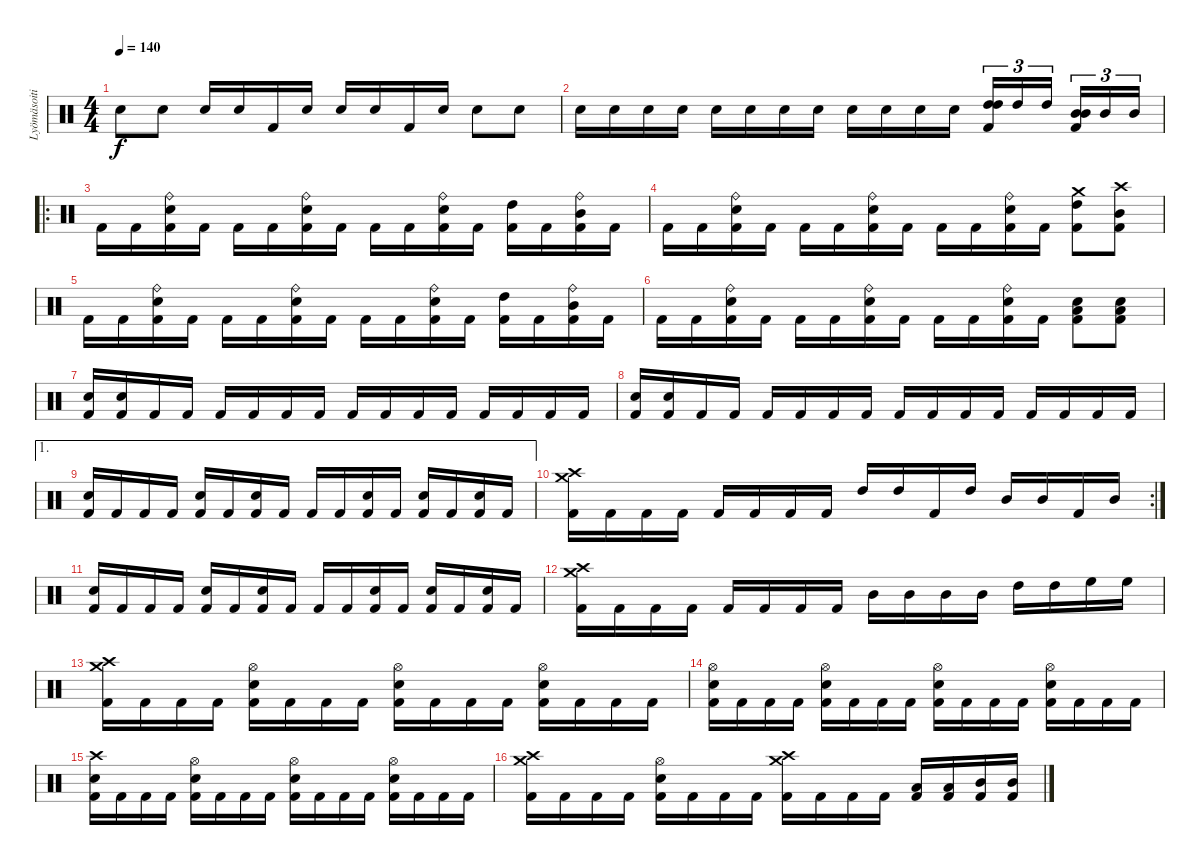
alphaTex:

\track ("Lyömäsoitin" "Lyömäsoiti") {instrument percussion}
\staff {score}
\articulation defaults
\ts (4 4)
\tempo 140
\clef neutral
\ks c "Snare (hit) 2".8{dy f} "Snare (hit) 2".8 "Snare (hit) 2".16 "Snare (hit) 2".16 "Kick (hit) 2".16 "Snare (hit) 2".16 "Snare (hit) 2".16 "Snare (hit) 2".16 "Kick (hit) 2".16 "Snare (hit) 2".16 "Snare (hit) 2".8 "Snare (hit) 2".8
|
"Snare (hit) 2".16 "Snare (hit) 2".16 "Snare (hit) 2".16 "Snare (hit) 2".16 "Snare (hit) 2".16 "Snare (hit) 2".16 "Snare (hit) 2".16 "Snare (hit) 2".16 "Snare (hit) 2".16 "Snare (hit) 2".16 "Snare (hit) 2".16 "Snare (hit) 2".16 ("Kick (hit) 2" "High Tom (hit)" "High Tom (hit)").16{tu (3 2)} "High Tom (hit)".16{tu (3 2)} "High Tom (hit)".16{tu (3 2)} ("Kick (hit) 2" "Mid Tom (hit)" "Mid Tom (hit)").16{tu (3 2)} "Mid Tom (hit)".16{tu (3 2)} "Mid Tom (hit)".16{tu (3 2)} |
\ro "Kick (hit) 2".16 "Kick (hit) 2".16
("Kick (hit) 2" "Snare (hit) 2" "Ride (bell)").16 "Kick (hit) 2".16 "Kick (hit) 2".16 "Kick (hit) 2".16 ("Kick (hit) 2" "Snare (hit) 2" "Ride (bell)").16 "Kick (hit) 2".16 "Kick (hit) 2".16 "Kick (hit) 2".16 ("Kick (hit) 2" "Snare (hit) 2" "Ride (bell)").16 "Kick (hit) 2".16 ("Kick (hit) 2" "High Tom (hit)").16 "Kick (hit) 2".16 ("Kick (hit) 2" "Mid Tom (hit)" "Ride (bell)").16 "Kick (hit) 2".16 |
"Kick (hit) 2".16 "Kick (hit) 2".16 ("Kick (hit) 2" "Snare (hit) 2" "Ride (bell)").16 "Kick (hit) 2".16 "Kick (hit) 2".16 "Kick (hit) 2".16 ("Kick (hit) 2" "Snare (hit) 2" "Ride (bell)").16 "Kick (hit) 2".16 "Kick (hit) 2".16 "Kick (hit) 2".16 ("Kick (hit) 2" "Snare (hit) 2" "Ride (bell)").16 "Kick (hit) 2".16 ("Kick (hit) 2" "High Tom (hit)" "Crash medium (hit)").8 ("Kick (hit) 2" "Mid Tom (hit)" "Crash high (hit)").8 |
"Kick (hit) 2".16 "Kick (hit) 2".16 ("Kick (hit) 2" "Snare (hit) 2" "Ride (bell)").16 "Kick (hit) 2".16 "Kick (hit) 2".16 "Kick (hit) 2".16 ("Kick (hit) 2" "Snare (hit) 2" "Ride (bell)").16 "Kick (hit) 2".16 "Kick (hit) 2".16 "Kick (hit) 2".16 ("Kick (hit) 2" "Snare (hit) 2" "Ride (bell)").16 "Kick (hit) 2".16 ("Kick (hit) 2" "High Tom (hit)").16 "Kick (hit) 2".16 ("Kick (hit) 2" "Mid Tom (hit)" "Ride (bell)").16 "Kick (hit) 2".16 |
"Kick (hit) 2".16 "Kick (hit) 2".16 ("Kick (hit) 2" "Snare (hit) 2" "Ride (bell)").16 "Kick (hit) 2".16 "Kick (hit) 2".16 "Kick (hit) 2".16 ("Kick (hit) 2" "Snare (hit) 2" "Ride (bell)").16 "Kick (hit) 2".16 "Kick (hit) 2".16 "Kick (hit) 2".16 ("Kick (hit) 2" "Snare (hit) 2" "Ride (bell)").16 "Kick (hit) 2".16 ("Kick (hit) 2" "Snare (hit) 2" "Low Tom (hit)").8 ("Kick (hit) 2" "Snare (hit) 2" "Low Tom (hit)").8 |
("Kick (hit) 2" "Snare (hit) 2").16 ("Kick (hit) 2" "Snare (hit) 2").16 "Kick (hit) 2".16 "Kick (hit) 2".16 "Kick (hit) 2".16 "Kick (hit) 2".16 "Kick (hit) 2".16 "Kick (hit) 2".16 "Kick (hit) 2".16 "Kick (hit) 2".16 "Kick (hit) 2".16 "Kick (hit) 2".16 "Kick (hit) 2".16 "Kick (hit) 2".16 "Kick (hit) 2".16 "Kick (hit) 2".16 |
("Kick (hit) 2" "Snare (hit) 2").16 ("Kick (hit) 2" "Snare (hit) 2").16 "Kick (hit) 2".16 "Kick (hit) 2".16 "Kick (hit) 2".16 "Kick (hit) 2".16 "Kick (hit) 2".16 "Kick (hit) 2".16 "Kick (hit) 2".16 "Kick (hit) 2".16 "Kick (hit) 2".16 "Kick (hit) 2".16 "Kick (hit) 2".16 "Kick (hit) 2".16 "Kick (hit) 2".16 "Kick (hit) 2".16 |
\ae 1
("Kick (hit) 2" "Snare (hit) 2").16 "Kick (hit) 2".16 "Kick (hit) 2".16 "Kick (hit) 2".16 ("Kick (hit) 2" "Snare (hit) 2").16 "Kick (hit) 2".16 ("Kick (hit) 2" "Snare (hit) 2").16 "Kick (hit) 2".16 "Kick (hit) 2".16 "Kick (hit) 2".16 ("Kick (hit) 2" "Snare (hit) 2").16 "Kick (hit) 2".16 ("Kick (hit) 2" "Snare (hit) 2").16 "Kick (hit) 2".16 ("Kick (hit) 2" "Snare (hit) 2").16 "Kick (hit) 2".16 |
\rc 2
("Crash medium (hit)" "Crash high (hit)" "Kick (hit) 2").16 "Kick (hit) 2".16 "Kick (hit) 2".16 "Kick (hit) 2".16 "Kick (hit) 2".16 "Kick (hit) 2".16 "Kick (hit) 2".16 "Kick (hit) 2".16 "High Tom (hit)".16 "High Tom (hit)".16 "Kick (hit) 2".16 "High Tom (hit)".16 "Mid Tom (hit)".16 "Mid Tom (hit)".16 "Kick (hit) 2".16 "Mid Tom (hit)".16 |
("Kick (hit) 2" "Snare (hit) 2").16 "Kick (hit) 2".16 "Kick (hit) 2".16 "Kick (hit) 2".16 ("Kick (hit) 2" "Snare (hit) 2").16 "Kick (hit) 2".16 ("Kick (hit) 2" "Snare (hit) 2").16 "Kick (hit) 2".16 "Kick (hit) 2".16 "Kick (hit) 2".16 ("Kick (hit) 2" "Snare (hit) 2").16 "Kick (hit) 2".16 ("Kick (hit) 2" "Snare (hit) 2").16 "Kick (hit) 2".16 ("Kick (hit) 2" "Snare (hit) 2").16 "Kick (hit) 2".16 |
("Crash medium (hit)" "Crash high (hit)" "Kick (hit) 2").16 "Kick (hit) 2".16 "Kick (hit) 2".16 "Kick (hit) 2".16 "Kick (hit) 2".16 "Kick (hit) 2".16 "Kick (hit) 2".16 "Kick (hit) 2".16 "Mid Tom (hit)".16 "Mid Tom (hit)".16 "Mid Tom (hit)".16 "Mid Tom (hit)".16 "High Tom (hit)".16 "High Tom (hit)".16 "High Floor Tom (hit)".16 "High Floor Tom (hit)".16 |
("Crash high (hit)" "Crash medium (hit)" "Kick (hit) 2").16 "Kick (hit) 2".16 "Kick (hit) 2".16 "Kick (hit) 2".16 ("Hi-Hat (open)" "Snare (hit) 2" "Kick (hit) 2").16 "Kick (hit) 2".16 "Kick (hit) 2".16 "Kick (hit) 2".16 ("Hi-Hat (open)" "Snare (hit) 2" "Kick (hit) 2").16 "Kick (hit) 2".16 "Kick (hit) 2".16 "Kick (hit) 2".16 ("Hi-Hat (open)" "Snare (hit) 2" "Kick (hit) 2").16 "Kick (hit) 2".16 "Kick (hit) 2".16 "Kick (hit) 2".16 |
("Hi-Hat (open)" "Snare (hit) 2" "Kick (hit) 2").16 "Kick (hit) 2".16 "Kick (hit) 2".16 "Kick (hit) 2".16 ("Hi-Hat (open)" "Snare (hit) 2" "Kick (hit) 2").16 "Kick (hit) 2".16 "Kick (hit) 2".16 "Kick (hit) 2".16 ("Hi-Hat (open)" "Snare (hit) 2" "Kick (hit) 2").16 "Kick (hit) 2".16 "Kick (hit) 2".16 "Kick (hit) 2".16 ("Hi-Hat (open)" "Snare (hit) 2" "Kick (hit) 2").16 "Kick (hit) 2".16 "Kick (hit) 2".16 "Kick (hit) 2".16 |
("Crash high (hit)" "Snare (hit) 2" "Kick (hit) 2").16 "Kick (hit) 2".16 "Kick (hit) 2".16 "Kick (hit) 2".16 ("Hi-Hat (open)" "Snare (hit) 2" "Kick (hit) 2").16 "Kick (hit) 2".16 "Kick (hit) 2".16 "Kick (hit) 2".16 ("Hi-Hat (open)" "Snare (hit) 2" "Kick (hit) 2").16 "Kick (hit) 2".16 "Kick (hit) 2".16 "Kick (hit) 2".16 ("Hi-Hat (open)" "Snare (hit) 2" "Kick (hit) 2").16 "Kick (hit) 2".16 "Kick (hit) 2".16 "Kick (hit) 2".16 |
("Crash high (hit)" "Crash medium (hit)" "Kick (hit) 2").16 "Kick (hit) 2".16 "Kick (hit) 2".16 "Kick (hit) 2".16 ("Hi-Hat (open)" "Snare (hit) 2" "Kick (hit) 2").16 "Kick (hit) 2".16 "Kick (hit) 2".16 "Kick (hit) 2".16 ("Crash high (hit)" "Crash medium (hit)" "Kick (hit) 2").16 "Kick (hit) 2".16 "Kick (hit) 2".16 "Kick (hit) 2".16 ("Low Tom (hit)" "Kick (hit) 2").16 ("Low Tom (hit)" "Kick (hit) 2").16 ("Mid Tom (hit)" "Kick (hit) 2").16 ("Mid Tom (hit)" "Kick (hit) 2").16
